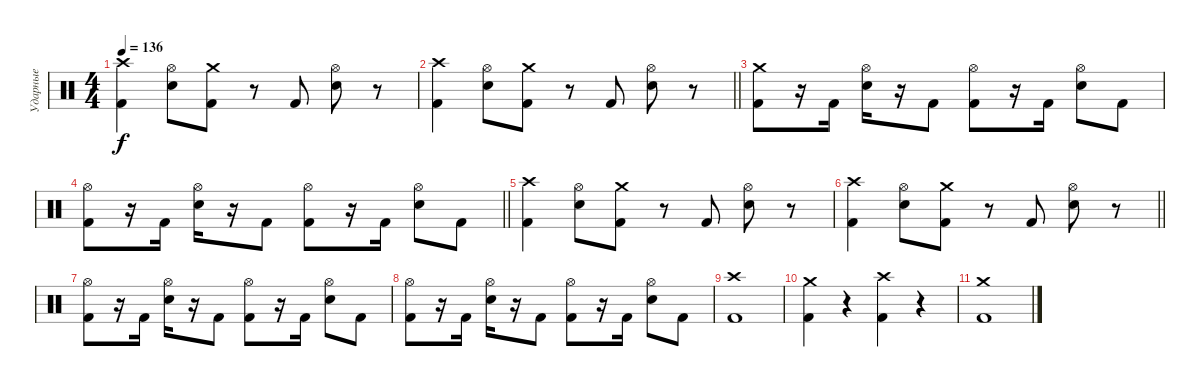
\track ("Ударные" "Ударные") {instrument percussion}
\staff {score}
\articulation defaults
\ts (4 4)
\tempo 136
\clef neutral
\ks c
("Crash high (hit)" "Kick (hit) 2").4{dy f} ("Hi-Hat (open)" "Snare (hit) 2").8 ("Crash medium (hit)" "Kick (hit) 2").8 r.8 "Kick (hit) 2".8 ("Hi-Hat (open)" "Snare (hit) 2").8 r.8 |
\barLineRight lightlight
("Crash high (hit)" "Kick (hit) 2").4 ("Hi-Hat (open)" "Snare (hit) 2").8 ("Crash medium (hit)" "Kick (hit) 2").8 r.8 "Kick (hit) 2".8 ("Hi-Hat (open)" "Snare (hit) 2").8 r.8 |
("Crash medium (hit)" "Kick (hit) 2").8 r.16 "Kick (hit) 2".16 ("Hi-Hat (open)" "Snare (hit) 2").16 r.16 "Kick (hit) 2".8 ("Hi-Hat (open)" "Kick (hit) 2").8 r.16 "Kick (hit) 2".16 ("Hi-Hat (open)" "Snare (hit) 2").8 "Kick (hit) 2".8 |
\barLineRight lightlight
("Hi-Hat (open)" "Kick (hit) 2").8 r.16 "Kick (hit) 2".16 ("Hi-Hat (open)" "Snare (hit) 2").16 r.16 "Kick (hit) 2".8 ("Hi-Hat (open)" "Kick (hit) 2").8 r.16 "Kick (hit) 2".16 ("Hi-Hat (open)" "Snare (hit) 2").8 "Kick (hit) 2".8 |
("Crash high (hit)" "Kick (hit) 2").4 ("Hi-Hat (open)" "Snare (hit) 2").8 ("Crash medium (hit)" "Kick (hit) 2").8 r.8 "Kick (hit) 2".8 ("Hi-Hat (open)" "Snare (hit) 2").8 r.8 |
\barLineRight lightlight
("Crash high (hit)" "Kick (hit) 2").4 ("Hi-Hat (open)" "Snare (hit) 2").8 ("Crash medium (hit)" "Kick (hit) 2").8 r.8 "Kick (hit) 2".8 ("Hi-Hat (open)" "Snare (hit) 2").8 r.8 |
("Hi-Hat (open)" "Kick (hit) 2").8 r.16 "Kick (hit) 2".16 ("Hi-Hat (open)" "Snare (hit) 2").16 r.16 "Kick (hit) 2".8 ("Hi-Hat (open)" "Kick (hit) 2").8 r.16 "Kick (hit) 2".16 ("Hi-Hat (open)" "Snare (hit) 2").8 "Kick (hit) 2".8 |
("Hi-Hat (open)" "Kick (hit) 2").8 r.16 "Kick (hit) 2".16 ("Hi-Hat (open)" "Snare (hit) 2").16 r.16 "Kick (hit) 2".8 ("Hi-Hat (open)" "Kick (hit) 2").8 r.16 "Kick (hit) 2".16 ("Hi-Hat (open)" "Snare (hit) 2").8 "Kick (hit) 2".8 |
("Crash high (hit)" "Kick (hit) 2").1 |
("Crash medium (hit)" "Kick (hit) 2").4 r.4 ("Crash high (hit)" "Kick (hit) 2").4 r.4 |
("Crash medium (hit)" "Kick (hit) 2").1
